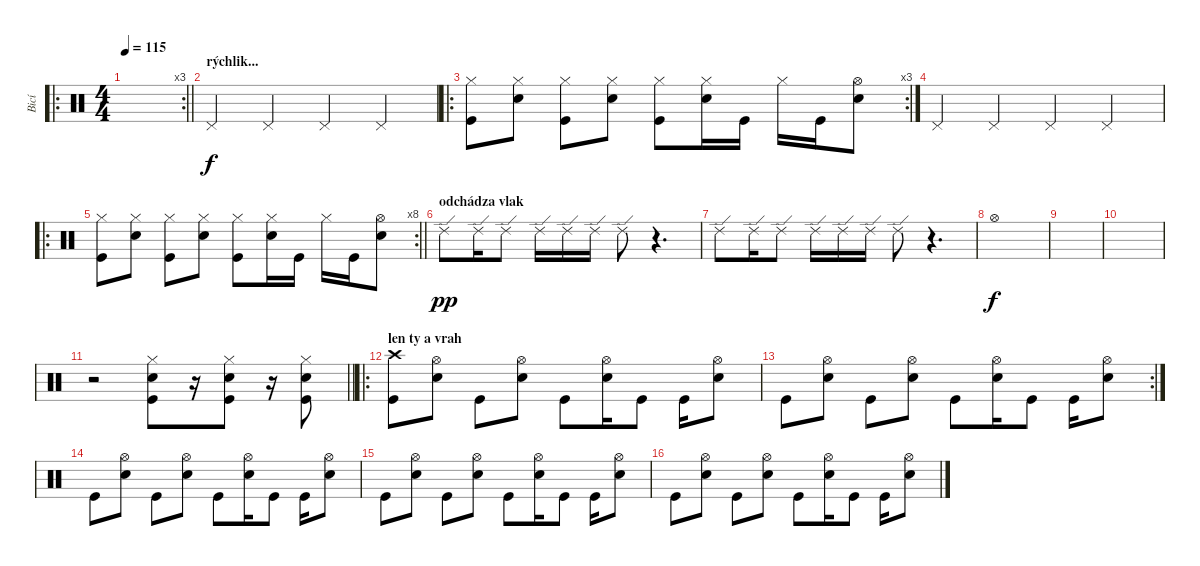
\track ("Bicí" "Bicí") {instrument percussion}
\staff {score}
\articulation defaults
\ro
\rc 3
\ts (4 4)
\tempo 115
\clef neutral
\barLineRight lightlight
\ks c
|
\section ("" "rýchlik...")
"Pedal Hi-Hat (hit)".4 "Pedal Hi-Hat (hit)".4 "Pedal Hi-Hat (hit)".4 "Pedal Hi-Hat (hit)".4 |
\ro
\rc 3
("Hi-Hat (closed)" "Kick (hit)").8 ("Hi-Hat (closed)" "Snare (hit) 2").8 ("Hi-Hat (closed)" "Kick (hit)").8 ("Hi-Hat (closed)" "Snare (hit) 2").8 ("Hi-Hat (closed)" "Kick (hit)").8 ("Hi-Hat (closed)" "Snare (hit) 2").16 "Kick (hit)".16 "Hi-Hat (closed)".16 "Kick (hit)".16 ("Hi-Hat (open)" "Snare (hit) 2").8 |
"Pedal Hi-Hat (hit)".4 "Pedal Hi-Hat (hit)".4 "Pedal Hi-Hat (hit)".4 "Pedal Hi-Hat (hit)".4 |
\ro
\rc 8
\barLineRight lightlight
("Hi-Hat (closed)" "Kick (hit)").8 ("Hi-Hat (closed)" "Snare (hit) 2").8 ("Hi-Hat (closed)" "Kick (hit)").8 ("Hi-Hat (closed)" "Snare (hit) 2").8 ("Hi-Hat (closed)" "Kick (hit)").8 ("Hi-Hat (closed)" "Snare (hit) 2").16 "Kick (hit)".16 "Hi-Hat (closed)".16 "Kick (hit)".16 ("Hi-Hat (open)" "Snare (hit) 2").8 |
\section ("" "odchádza vlak")
"Ride (edge) 2".8{dy pp} "Ride (edge) 2".16 "Ride (edge) 2".8 "Ride (edge) 2".16 "Ride (edge) 2".16 "Ride (edge) 2".16 "Ride (edge) 2".8 r.4{d} |
"Ride (edge) 2".8 "Ride (edge) 2".16 "Ride (edge) 2".8 "Ride (edge) 2".16 "Ride (edge) 2".16 "Ride (edge) 2".16 "Ride (edge) 2".8 r.4{d} |
"Hi-Hat (open)".1{dy f} |
|
|
\barLineRight lightlight
r.2 ("Hi-Hat (closed)" "Snare (hit) 2" "Kick (hit)").8 r.16 ("Hi-Hat (closed)" "Snare (hit) 2" "Kick (hit)").8 r.16 ("Hi-Hat (closed)" "Snare (hit) 2" "Kick (hit)").8 |
\ro
\section ("" "len ty a vrah")
("Crash high (hit)" "Kick (hit)").8 ("Hi-Hat (open)" "Snare (hit) 2").8 "Kick (hit)".8 ("Hi-Hat (open)" "Snare (hit) 2").8 "Kick (hit)".8 ("Hi-Hat (open)" "Snare (hit) 2").16 "Kick (hit)".8 "Kick (hit)".16 ("Hi-Hat (open)" "Snare (hit) 2").8 |
\rc 2 "Kick (hit)".8
("Hi-Hat (open)" "Snare (hit) 2").8 "Kick (hit)".8 ("Hi-Hat (open)" "Snare (hit) 2").8 "Kick (hit)".8 ("Hi-Hat (open)" "Snare (hit) 2").16 "Kick (hit)".8 "Kick (hit)".16 ("Hi-Hat (open)" "Snare (hit) 2").8 |
"Kick (hit)".8 ("Hi-Hat (open)" "Snare (hit) 2").8 "Kick (hit)".8 ("Hi-Hat (open)" "Snare (hit) 2").8 "Kick (hit)".8 ("Hi-Hat (open)" "Snare (hit) 2").16 "Kick (hit)".8 "Kick (hit)".16 ("Hi-Hat (open)" "Snare (hit) 2").8 |
"Kick (hit)".8 ("Hi-Hat (open)" "Snare (hit) 2").8 "Kick (hit)".8 ("Hi-Hat (open)" "Snare (hit) 2").8 "Kick (hit)".8 ("Hi-Hat (open)" "Snare (hit) 2").16 "Kick (hit)".8 "Kick (hit)".16 ("Hi-Hat (open)" "Snare (hit) 2").8 |
"Kick (hit)".8 ("Hi-Hat (open)" "Snare (hit) 2").8 "Kick (hit)".8 ("Hi-Hat (open)" "Snare (hit) 2").8 "Kick (hit)".8 ("Hi-Hat (open)" "Snare (hit) 2").16 "Kick (hit)".8 "Kick (hit)".16 ("Hi-Hat (open)" "Snare (hit) 2").8
